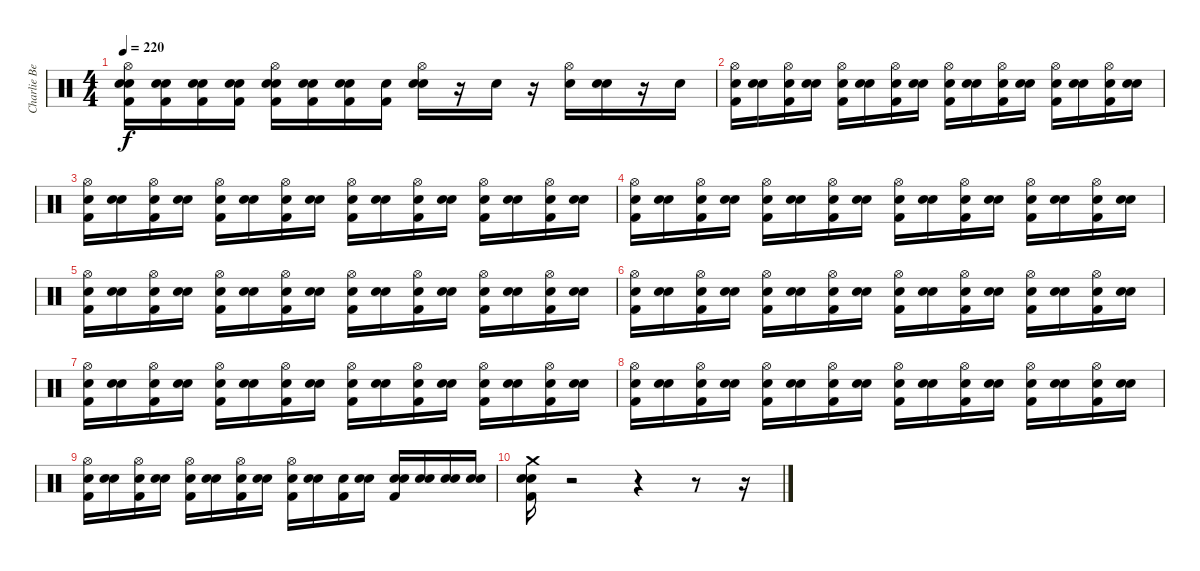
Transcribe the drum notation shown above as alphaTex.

\track ("Charlie Benante" "Charlie Be") {instrument percussion}
\staff {score}
\articulation defaults
\ts (4 4)
\tempo 220
\clef neutral
\ks c
("Snare (hit)" "Kick (hit) 2" "Snare (hit) 2" "Hi-Hat (open)").16{dy f} ("Snare (hit)" "Kick (hit) 2" "Snare (hit) 2").16 ("Snare (hit)" "Kick (hit) 2" "Snare (hit) 2").16 ("Snare (hit)" "Kick (hit) 2" "Snare (hit) 2").16 ("Snare (hit)" "Kick (hit) 2" "Snare (hit) 2" "Hi-Hat (open)").16 ("Snare (hit)" "Kick (hit) 2" "Snare (hit) 2").16 ("Snare (hit)" "Kick (hit) 2" "Snare (hit) 2").16 ("Snare (hit)" "Kick (hit) 2").16 ("Snare (hit)" "Snare (hit) 2" "Hi-Hat (open)").16 r.16 "Snare (hit) 2".16 r.16 ("Snare (hit) 2" "Hi-Hat (open)").16 ("Snare (hit)" "Snare (hit) 2").16 r.16 "Snare (hit) 2".16 |
("Snare (hit)" "Kick (hit) 2" "Hi-Hat (open)").16 ("Snare (hit)" "Snare (hit) 2").16 ("Snare (hit)" "Kick (hit) 2" "Hi-Hat (open)").16 ("Snare (hit)" "Snare (hit) 2").16 ("Snare (hit)" "Kick (hit) 2" "Hi-Hat (open)").16 ("Snare (hit)" "Snare (hit) 2").16 ("Snare (hit)" "Kick (hit) 2" "Hi-Hat (open)").16 ("Snare (hit)" "Snare (hit) 2").16 ("Snare (hit)" "Kick (hit) 2" "Hi-Hat (open)").16 ("Snare (hit)" "Snare (hit) 2").16 ("Snare (hit)" "Kick (hit) 2" "Hi-Hat (open)").16 ("Snare (hit)" "Snare (hit) 2").16 ("Snare (hit)" "Kick (hit) 2" "Hi-Hat (open)").16 ("Snare (hit)" "Snare (hit) 2").16 ("Snare (hit)" "Kick (hit) 2" "Hi-Hat (open)").16 ("Snare (hit)" "Snare (hit) 2").16 |
("Snare (hit)" "Kick (hit) 2" "Hi-Hat (open)").16 ("Snare (hit)" "Snare (hit) 2").16 ("Snare (hit)" "Kick (hit) 2" "Hi-Hat (open)").16 ("Snare (hit)" "Snare (hit) 2").16 ("Snare (hit)" "Kick (hit) 2" "Hi-Hat (open)").16 ("Snare (hit)" "Snare (hit) 2").16 ("Snare (hit)" "Kick (hit) 2" "Hi-Hat (open)").16 ("Snare (hit)" "Snare (hit) 2").16 ("Snare (hit)" "Kick (hit) 2" "Hi-Hat (open)").16 ("Snare (hit)" "Snare (hit) 2").16 ("Snare (hit)" "Kick (hit) 2" "Hi-Hat (open)").16 ("Snare (hit)" "Snare (hit) 2").16 ("Snare (hit)" "Kick (hit) 2" "Hi-Hat (open)").16 ("Snare (hit)" "Snare (hit) 2").16 ("Snare (hit)" "Kick (hit) 2" "Hi-Hat (open)").16 ("Snare (hit)" "Snare (hit) 2").16 |
("Snare (hit)" "Kick (hit) 2" "Hi-Hat (open)").16 ("Snare (hit)" "Snare (hit) 2").16 ("Snare (hit)" "Kick (hit) 2" "Hi-Hat (open)").16 ("Snare (hit)" "Snare (hit) 2").16 ("Snare (hit)" "Kick (hit) 2" "Hi-Hat (open)").16 ("Snare (hit)" "Snare (hit) 2").16 ("Snare (hit)" "Kick (hit) 2" "Hi-Hat (open)").16 ("Snare (hit)" "Snare (hit) 2").16 ("Snare (hit)" "Kick (hit) 2" "Hi-Hat (open)").16 ("Snare (hit)" "Snare (hit) 2").16 ("Snare (hit)" "Kick (hit) 2" "Hi-Hat (open)").16 ("Snare (hit)" "Snare (hit) 2").16 ("Snare (hit)" "Kick (hit) 2" "Hi-Hat (open)").16 ("Snare (hit)" "Snare (hit) 2").16 ("Snare (hit)" "Kick (hit) 2" "Hi-Hat (open)").16 ("Snare (hit)" "Snare (hit) 2").16 |
("Snare (hit)" "Kick (hit) 2" "Hi-Hat (open)").16 ("Snare (hit)" "Snare (hit) 2").16 ("Snare (hit)" "Kick (hit) 2" "Hi-Hat (open)").16 ("Snare (hit)" "Snare (hit) 2").16 ("Snare (hit)" "Kick (hit) 2" "Hi-Hat (open)").16 ("Snare (hit)" "Snare (hit) 2").16 ("Snare (hit)" "Kick (hit) 2" "Hi-Hat (open)").16 ("Snare (hit)" "Snare (hit) 2").16 ("Snare (hit)" "Kick (hit) 2" "Hi-Hat (open)").16 ("Snare (hit)" "Snare (hit) 2").16 ("Snare (hit)" "Kick (hit) 2" "Hi-Hat (open)").16 ("Snare (hit)" "Snare (hit) 2").16 ("Snare (hit)" "Kick (hit) 2" "Hi-Hat (open)").16 ("Snare (hit)" "Snare (hit) 2").16 ("Snare (hit)" "Kick (hit) 2" "Hi-Hat (open)").16 ("Snare (hit)" "Snare (hit) 2").16 |
("Snare (hit)" "Kick (hit) 2" "Hi-Hat (open)").16 ("Snare (hit)" "Snare (hit) 2").16 ("Snare (hit)" "Kick (hit) 2" "Hi-Hat (open)").16 ("Snare (hit)" "Snare (hit) 2").16 ("Snare (hit)" "Kick (hit) 2" "Hi-Hat (open)").16 ("Snare (hit)" "Snare (hit) 2").16 ("Snare (hit)" "Kick (hit) 2" "Hi-Hat (open)").16 ("Snare (hit)" "Snare (hit) 2").16 ("Snare (hit)" "Kick (hit) 2" "Hi-Hat (open)").16 ("Snare (hit)" "Snare (hit) 2").16 ("Snare (hit)" "Kick (hit) 2" "Hi-Hat (open)").16 ("Snare (hit)" "Snare (hit) 2").16 ("Snare (hit)" "Kick (hit) 2" "Hi-Hat (open)").16 ("Snare (hit)" "Snare (hit) 2").16 ("Snare (hit)" "Kick (hit) 2" "Hi-Hat (open)").16 ("Snare (hit)" "Snare (hit) 2").16 |
("Snare (hit)" "Kick (hit) 2" "Hi-Hat (open)").16 ("Snare (hit)" "Snare (hit) 2").16 ("Snare (hit)" "Kick (hit) 2" "Hi-Hat (open)").16 ("Snare (hit)" "Snare (hit) 2").16 ("Snare (hit)" "Kick (hit) 2" "Hi-Hat (open)").16 ("Snare (hit)" "Snare (hit) 2").16 ("Snare (hit)" "Kick (hit) 2" "Hi-Hat (open)").16 ("Snare (hit)" "Snare (hit) 2").16 ("Snare (hit)" "Kick (hit) 2" "Hi-Hat (open)").16 ("Snare (hit)" "Snare (hit) 2").16 ("Snare (hit)" "Kick (hit) 2" "Hi-Hat (open)").16 ("Snare (hit)" "Snare (hit) 2").16 ("Snare (hit)" "Kick (hit) 2" "Hi-Hat (open)").16 ("Snare (hit)" "Snare (hit) 2").16 ("Snare (hit)" "Kick (hit) 2" "Hi-Hat (open)").16 ("Snare (hit)" "Snare (hit) 2").16 |
("Snare (hit)" "Kick (hit) 2" "Hi-Hat (open)").16 ("Snare (hit)" "Snare (hit) 2").16 ("Snare (hit)" "Kick (hit) 2" "Hi-Hat (open)").16 ("Snare (hit)" "Snare (hit) 2").16 ("Snare (hit)" "Kick (hit) 2" "Hi-Hat (open)").16 ("Snare (hit)" "Snare (hit) 2").16 ("Snare (hit)" "Kick (hit) 2" "Hi-Hat (open)").16 ("Snare (hit)" "Snare (hit) 2").16 ("Snare (hit)" "Kick (hit) 2" "Hi-Hat (open)").16 ("Snare (hit)" "Snare (hit) 2").16 ("Snare (hit)" "Kick (hit) 2" "Hi-Hat (open)").16 ("Snare (hit)" "Snare (hit) 2").16 ("Snare (hit)" "Kick (hit) 2" "Hi-Hat (open)").16 ("Snare (hit)" "Snare (hit) 2").16 ("Snare (hit)" "Kick (hit) 2" "Hi-Hat (open)").16 ("Snare (hit)" "Snare (hit) 2").16 |
("Snare (hit)" "Kick (hit) 2" "Hi-Hat (open)").16 ("Snare (hit)" "Snare (hit) 2").16 ("Snare (hit)" "Kick (hit) 2" "Hi-Hat (open)").16 ("Snare (hit)" "Snare (hit) 2").16 ("Snare (hit)" "Kick (hit) 2" "Hi-Hat (open)").16 ("Snare (hit)" "Snare (hit) 2").16 ("Snare (hit)" "Kick (hit) 2" "Hi-Hat (open)").16 ("Snare (hit)" "Snare (hit) 2").16 ("Snare (hit)" "Kick (hit) 2" "Hi-Hat (open)").16 ("Snare (hit)" "Snare (hit) 2").16 ("Snare (hit)" "Kick (hit) 2").16 ("Snare (hit)" "Snare (hit) 2").16 ("Snare (hit)" "Kick (hit) 2" "Snare (hit) 2").16 ("Snare (hit)" "Snare (hit) 2").16 ("Snare (hit)" "Snare (hit) 2").16 ("Snare (hit)" "Snare (hit) 2").16 |
("Snare (hit)" "Kick (hit) 2" "Snare (hit) 2" "Crash medium (hit)").16 r.2 r.4 r.8 r.16
